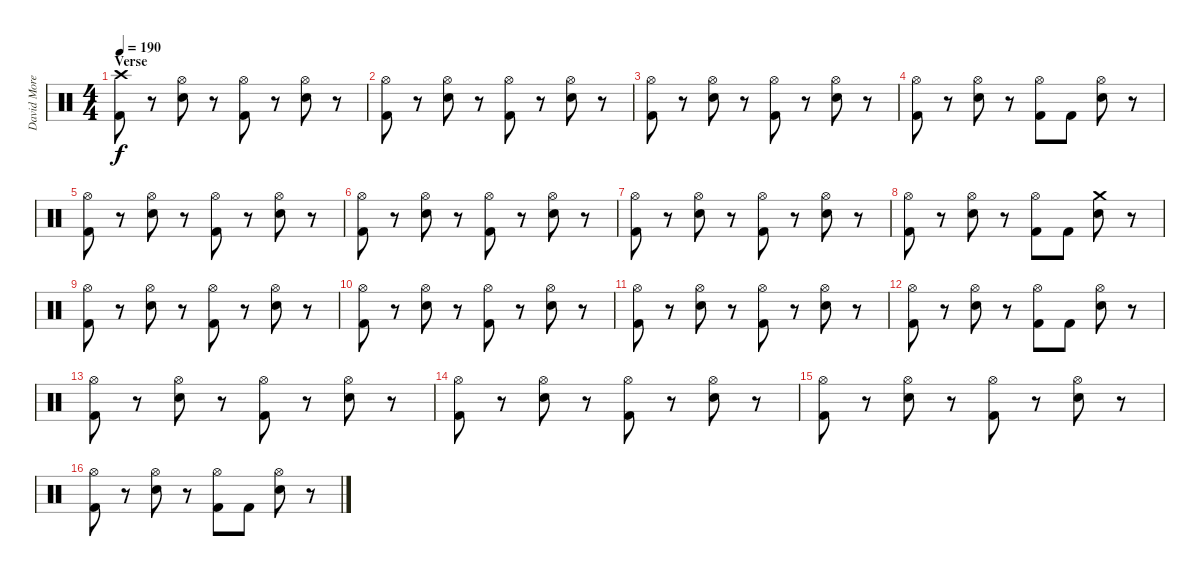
\track ("David Moreno" "David More") {instrument percussion}
\staff {score}
\articulation defaults
\ts (4 4)
\section ("" "Verse")
\tempo 190
\clef neutral
\ks c
("Crash high (hit)" "Kick (hit) 2").8{dy f} r.8 ("Hi-Hat (open)" "Snare (hit) 2").8 r.8 ("Hi-Hat (open)" "Kick (hit) 2").8 r.8 ("Hi-Hat (open)" "Snare (hit) 2").8 r.8 |
("Hi-Hat (open)" "Kick (hit) 2").8 r.8 ("Hi-Hat (open)" "Snare (hit) 2").8 r.8 ("Hi-Hat (open)" "Kick (hit) 2").8 r.8 ("Hi-Hat (open)" "Snare (hit) 2").8 r.8 |
("Hi-Hat (open)" "Kick (hit) 2").8 r.8 ("Hi-Hat (open)" "Snare (hit) 2").8 r.8 ("Hi-Hat (open)" "Kick (hit) 2").8 r.8 ("Hi-Hat (open)" "Snare (hit) 2").8 r.8 |
("Hi-Hat (open)" "Kick (hit) 2").8 r.8 ("Hi-Hat (open)" "Snare (hit) 2").8 r.8 ("Hi-Hat (open)" "Kick (hit) 2").8 "Kick (hit) 2".8 ("Hi-Hat (open)" "Snare (hit) 2").8 r.8 |
("Hi-Hat (open)" "Kick (hit) 2").8 r.8 ("Hi-Hat (open)" "Snare (hit) 2").8 r.8 ("Hi-Hat (open)" "Kick (hit) 2").8 r.8 ("Hi-Hat (open)" "Snare (hit) 2").8 r.8 |
("Hi-Hat (open)" "Kick (hit) 2").8 r.8 ("Hi-Hat (open)" "Snare (hit) 2").8 r.8 ("Hi-Hat (open)" "Kick (hit) 2").8 r.8 ("Hi-Hat (open)" "Snare (hit) 2").8 r.8 |
("Hi-Hat (open)" "Kick (hit) 2").8 r.8 ("Hi-Hat (open)" "Snare (hit) 2").8 r.8 ("Hi-Hat (open)" "Kick (hit) 2").8 r.8 ("Hi-Hat (open)" "Snare (hit) 2").8 r.8 |
("Hi-Hat (open)" "Kick (hit) 2").8 r.8 ("Hi-Hat (open)" "Snare (hit) 2").8 r.8 ("Hi-Hat (open)" "Kick (hit) 2").8 "Kick (hit) 2".8 ("Crash medium (hit)" "Snare (hit) 2").8 r.8 |
("Hi-Hat (open)" "Kick (hit) 2").8 r.8 ("Hi-Hat (open)" "Snare (hit) 2").8 r.8 ("Hi-Hat (open)" "Kick (hit) 2").8 r.8 ("Hi-Hat (open)" "Snare (hit) 2").8 r.8 |
("Hi-Hat (open)" "Kick (hit) 2").8 r.8 ("Hi-Hat (open)" "Snare (hit) 2").8 r.8 ("Hi-Hat (open)" "Kick (hit) 2").8 r.8 ("Hi-Hat (open)" "Snare (hit) 2").8 r.8 |
("Hi-Hat (open)" "Kick (hit) 2").8 r.8 ("Hi-Hat (open)" "Snare (hit) 2").8 r.8 ("Hi-Hat (open)" "Kick (hit) 2").8 r.8 ("Hi-Hat (open)" "Snare (hit) 2").8 r.8 |
("Hi-Hat (open)" "Kick (hit) 2").8 r.8 ("Hi-Hat (open)" "Snare (hit) 2").8 r.8 ("Hi-Hat (open)" "Kick (hit) 2").8 "Kick (hit) 2".8 ("Hi-Hat (open)" "Snare (hit) 2").8 r.8 |
("Hi-Hat (open)" "Kick (hit) 2").8 r.8 ("Hi-Hat (open)" "Snare (hit) 2").8 r.8 ("Hi-Hat (open)" "Kick (hit) 2").8 r.8 ("Hi-Hat (open)" "Snare (hit) 2").8 r.8 |
("Hi-Hat (open)" "Kick (hit) 2").8 r.8 ("Hi-Hat (open)" "Snare (hit) 2").8 r.8 ("Hi-Hat (open)" "Kick (hit) 2").8 r.8 ("Hi-Hat (open)" "Snare (hit) 2").8 r.8 |
("Hi-Hat (open)" "Kick (hit) 2").8 r.8 ("Hi-Hat (open)" "Snare (hit) 2").8 r.8 ("Hi-Hat (open)" "Kick (hit) 2").8 r.8 ("Hi-Hat (open)" "Snare (hit) 2").8 r.8 |
("Hi-Hat (open)" "Kick (hit) 2").8 r.8 ("Hi-Hat (open)" "Snare (hit) 2").8 r.8 ("Hi-Hat (open)" "Kick (hit) 2").8 "Kick (hit) 2".8 ("Hi-Hat (open)" "Snare (hit) 2").8 r.8
